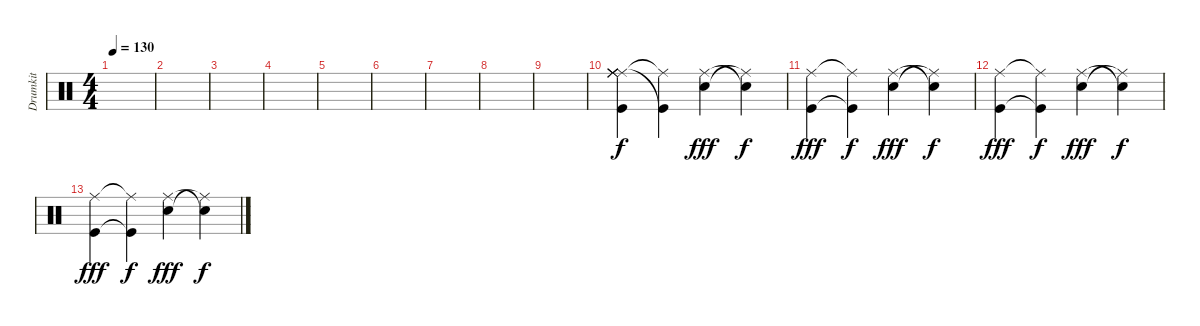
\track ("Drumkit" "Drumkit") {instrument percussion}
\staff {score}
\articulation defaults
\ts (4 4)
\tempo 130
\clef neutral
\ks c
|
|
|
|
|
|
|
|
|
("Ride (middle)" "Ride (middle)" "Ride (middle)" "Ride (middle)" "Ride (middle)" "Kick (hit)").4 ("Ride (middle)"{t} "Kick (hit)"{t}).4{dy f} ("Ride (middle)" "Snare (hit) 2").4{dy fff} ("Snare (hit)"{t} "Ride (middle)"{t}).4{dy f} |
("Ride (middle)" "Kick (hit)").4{dy fff} ("Ride (middle)"{t} "Kick (hit)"{t}).4{dy f} ("Ride (middle)" "Snare (hit) 2").4{dy fff} ("Snare (hit)"{t} "Ride (middle)"{t}).4{dy f} |
("Ride (middle)" "Kick (hit)").4{dy fff} ("Ride (middle)"{t} "Kick (hit)"{t}).4{dy f} ("Ride (middle)" "Snare (hit) 2").4{dy fff} ("Snare (hit)"{t} "Ride (middle)"{t}).4{dy f} |
("Ride (middle)" "Kick (hit)").4{dy fff} ("Ride (middle)"{t} "Kick (hit)"{t}).4{dy f} ("Ride (middle)" "Snare (hit) 2").4{dy fff} ("Snare (hit)"{t} "Ride (middle)"{t}).4{dy f}
